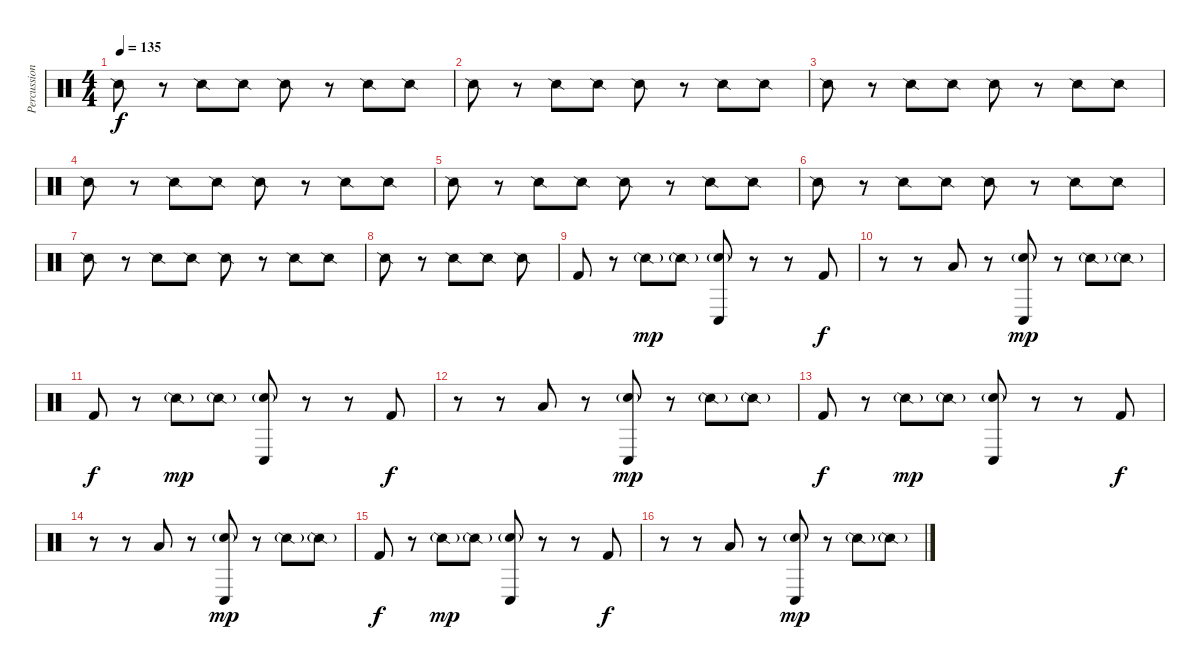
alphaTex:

\track ("Percussion" "Percussion") {instrument percussion}
\staff {score}
\articulation defaults
\ts (4 4)
\tempo 135
\clef neutral
\ks c "Snare (side stick) 2".8{dy f}
r.8 "Snare (side stick) 2".8 "Snare (side stick) 2".8 "Snare (side stick) 2".8 r.8 "Snare (side stick) 2".8 "Snare (side stick) 2".8 |
"Snare (side stick) 2".8 r.8 "Snare (side stick) 2".8 "Snare (side stick) 2".8 "Snare (side stick) 2".8 r.8 "Snare (side stick) 2".8 "Snare (side stick) 2".8 |
"Snare (side stick) 2".8 r.8 "Snare (side stick) 2".8 "Snare (side stick) 2".8 "Snare (side stick) 2".8 r.8 "Snare (side stick) 2".8 "Snare (side stick) 2".8 |
"Snare (side stick) 2".8 r.8 "Snare (side stick) 2".8 "Snare (side stick) 2".8 "Snare (side stick) 2".8 r.8 "Snare (side stick) 2".8 "Snare (side stick) 2".8 |
"Snare (side stick) 2".8 r.8 "Snare (side stick) 2".8 "Snare (side stick) 2".8 "Snare (side stick) 2".8 r.8 "Snare (side stick) 2".8 "Snare (side stick) 2".8 |
"Snare (side stick) 2".8 r.8 "Snare (side stick) 2".8 "Snare (side stick) 2".8 "Snare (side stick) 2".8 r.8 "Snare (side stick) 2".8 "Snare (side stick) 2".8 |
"Snare (side stick) 2".8 r.8 "Snare (side stick) 2".8 "Snare (side stick) 2".8 "Snare (side stick) 2".8 r.8 "Snare (side stick) 2".8 "Snare (side stick) 2".8 |
"Snare (side stick) 2".8 r.8 "Snare (side stick) 2".8 "Snare (side stick) 2".8 "Snare (side stick) 2".8 |
"Kick (hit) 2".8 r.8 "Snare (side stick) 2"{g}.8{dy mp} "Snare (side stick) 2"{g}.8 ("Conga low (hit)" "Snare (hit) 2"{g}).8 r.8 r.8 "Kick (hit) 2".8{dy f} |
r.8 r.8 "Low Tom (hit)".8 r.8 ("Conga low (hit)" "Snare (hit) 2"{g}).8{dy mp} r.8 "Snare (side stick) 2"{g}.8 "Snare (side stick) 2"{g}.8 |
"Kick (hit) 2".8{dy f} r.8 "Snare (side stick) 2"{g}.8{dy mp} "Snare (side stick) 2"{g}.8 ("Conga low (hit)" "Snare (hit) 2"{g}).8 r.8 r.8 "Kick (hit) 2".8{dy f} |
r.8 r.8 "Low Tom (hit)".8 r.8 ("Conga low (hit)" "Snare (hit) 2"{g}).8{dy mp} r.8 "Snare (side stick) 2"{g}.8 "Snare (side stick) 2"{g}.8 |
"Kick (hit) 2".8{dy f} r.8 "Snare (side stick) 2"{g}.8{dy mp} "Snare (side stick) 2"{g}.8 ("Conga low (hit)" "Snare (hit) 2"{g}).8 r.8 r.8 "Kick (hit) 2".8{dy f} |
r.8 r.8 "Low Tom (hit)".8 r.8 ("Conga low (hit)" "Snare (hit) 2"{g}).8{dy mp} r.8 "Snare (side stick) 2"{g}.8 "Snare (side stick) 2"{g}.8 |
"Kick (hit) 2".8{dy f} r.8 "Snare (side stick) 2"{g}.8{dy mp} "Snare (side stick) 2"{g}.8 ("Conga low (hit)" "Snare (hit) 2"{g}).8 r.8 r.8 "Kick (hit) 2".8{dy f} |
r.8 r.8 "Low Tom (hit)".8 r.8 ("Conga low (hit)" "Snare (hit) 2"{g}).8{dy mp} r.8 "Snare (side stick) 2"{g}.8 "Snare (side stick) 2"{g}.8
